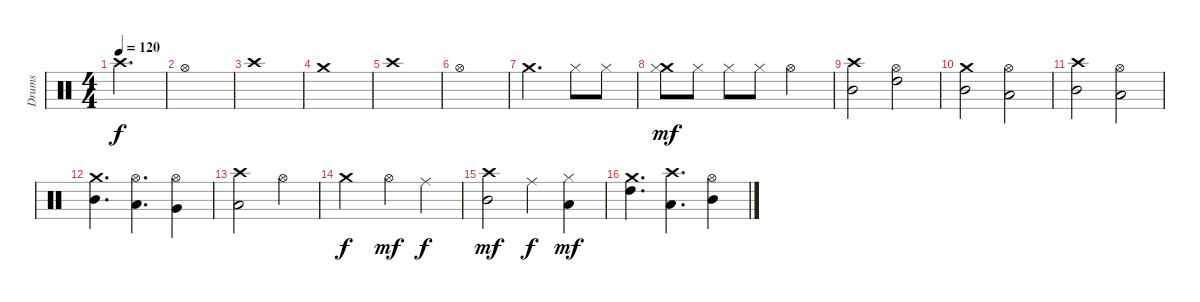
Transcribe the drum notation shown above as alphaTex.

\track ("Drums" "Drums") {instrument percussion}
\staff {score}
\articulation defaults
\ts (4 4)
\tempo 120
\clef neutral
\ks c "Crash high (hit)".2{d dy f}
|
"Hi-Hat (open)".1 |
"Crash high (hit)".1 |
"Crash medium (hit)".1 |
"Crash high (hit)".1 |
"Hi-Hat (open)".1 |
"Crash medium (hit)".2{d} "Hi-Hat (closed)".8 "Hi-Hat (closed)".8 |
("Crash medium (hit)" "Hi-Hat (closed)").8{dy mf} "Hi-Hat (closed)".8 "Hi-Hat (closed)".8 "Hi-Hat (closed)".8 "Hi-Hat (open)".2 |
("Crash high (hit)" "Mid Tom (hit)").2 ("Hi-Hat (open)" "High Tom (hit)").2 |
("Crash medium (hit)" "Mid Tom (hit)").2 ("Hi-Hat (open)" "Low Tom (hit)").2 |
("Crash high (hit)" "Mid Tom (hit)").2 ("Hi-Hat (open)" "Low Tom (hit)").2 |
("Crash medium (hit)" "Mid Tom (hit)").4{d} ("Hi-Hat (open)" "Low Tom (hit)").4{d} ("Hi-Hat (open)" "Very Low Tom (hit)").4 |
("Crash high (hit)" "Low Floor Tom (hit)").2 "Hi-Hat (open)".4 |
"Crash medium (hit)".2{dy f} "Hi-Hat (open)".4{dy mf} "Ride (middle)".4{dy f} |
("Crash high (hit)" "Mid Tom (hit)").2{dy mf} "Ride (middle)".4{dy f} ("Hi-Hat (closed)" "Low Tom (hit)").4{dy mf} |
("Crash medium (hit)" "High Tom (hit)").4{d} ("Crash high (hit)" "Low Tom (hit)").4{d} ("Hi-Hat (open)" "Mid Tom (hit)").4
